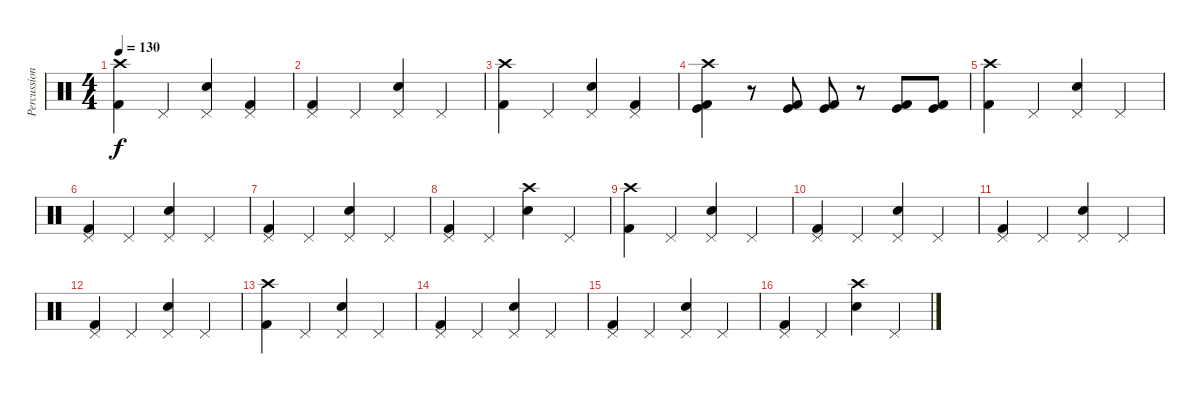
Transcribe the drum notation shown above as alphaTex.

\track ("Percussions" "Percussion") {instrument percussion}
\staff {score}
\articulation defaults
\ts (4 4)
\tempo 130
\clef neutral
\ks c
("Crash high (hit)" "Kick (hit) 2").4{dy f} "Pedal Hi-Hat (hit)".4 ("Pedal Hi-Hat (hit)" "Snare (hit) 2").4 ("Pedal Hi-Hat (hit)" "Kick (hit) 2").4 |
("Pedal Hi-Hat (hit)" "Kick (hit) 2").4 "Pedal Hi-Hat (hit)".4 ("Pedal Hi-Hat (hit)" "Snare (hit) 2").4 "Pedal Hi-Hat (hit)".4 |
("Crash high (hit)" "Kick (hit) 2").4 "Pedal Hi-Hat (hit)".4 ("Pedal Hi-Hat (hit)" "Snare (hit) 2").4 ("Pedal Hi-Hat (hit)" "Kick (hit) 2").4 |
("Crash high (hit)" "Kick (hit)" "Kick (hit) 2").4 r.8 ("Kick (hit)" "Kick (hit) 2").8 ("Kick (hit)" "Kick (hit) 2").8 r.8 ("Kick (hit)" "Kick (hit) 2").8 ("Kick (hit)" "Kick (hit) 2").8 |
("Crash high (hit)" "Kick (hit) 2").4 "Pedal Hi-Hat (hit)".4 ("Pedal Hi-Hat (hit)" "Snare (hit) 2").4 "Pedal Hi-Hat (hit)".4 |
("Pedal Hi-Hat (hit)" "Kick (hit) 2").4 "Pedal Hi-Hat (hit)".4 ("Pedal Hi-Hat (hit)" "Snare (hit) 2").4 "Pedal Hi-Hat (hit)".4 |
("Pedal Hi-Hat (hit)" "Kick (hit) 2").4 "Pedal Hi-Hat (hit)".4 ("Pedal Hi-Hat (hit)" "Snare (hit) 2").4 "Pedal Hi-Hat (hit)".4 |
("Pedal Hi-Hat (hit)" "Kick (hit) 2").4 "Pedal Hi-Hat (hit)".4 ("Crash high (hit)" "Snare (hit) 2").4 "Pedal Hi-Hat (hit)".4 |
("Crash high (hit)" "Kick (hit) 2").4 "Pedal Hi-Hat (hit)".4 ("Pedal Hi-Hat (hit)" "Snare (hit) 2").4 "Pedal Hi-Hat (hit)".4 |
("Pedal Hi-Hat (hit)" "Kick (hit) 2").4 "Pedal Hi-Hat (hit)".4 ("Pedal Hi-Hat (hit)" "Snare (hit) 2").4 "Pedal Hi-Hat (hit)".4 |
("Pedal Hi-Hat (hit)" "Kick (hit) 2").4 "Pedal Hi-Hat (hit)".4 ("Pedal Hi-Hat (hit)" "Snare (hit) 2").4 "Pedal Hi-Hat (hit)".4 |
("Pedal Hi-Hat (hit)" "Kick (hit) 2").4 "Pedal Hi-Hat (hit)".4 ("Pedal Hi-Hat (hit)" "Snare (hit) 2").4 "Pedal Hi-Hat (hit)".4 |
("Crash high (hit)" "Kick (hit) 2").4 "Pedal Hi-Hat (hit)".4 ("Pedal Hi-Hat (hit)" "Snare (hit) 2").4 "Pedal Hi-Hat (hit)".4 |
("Pedal Hi-Hat (hit)" "Kick (hit) 2").4 "Pedal Hi-Hat (hit)".4 ("Pedal Hi-Hat (hit)" "Snare (hit) 2").4 "Pedal Hi-Hat (hit)".4 |
("Pedal Hi-Hat (hit)" "Kick (hit) 2").4 "Pedal Hi-Hat (hit)".4 ("Pedal Hi-Hat (hit)" "Snare (hit) 2").4 "Pedal Hi-Hat (hit)".4 |
("Pedal Hi-Hat (hit)" "Kick (hit) 2").4 "Pedal Hi-Hat (hit)".4 ("Crash high (hit)" "Snare (hit) 2").4 "Pedal Hi-Hat (hit)".4
